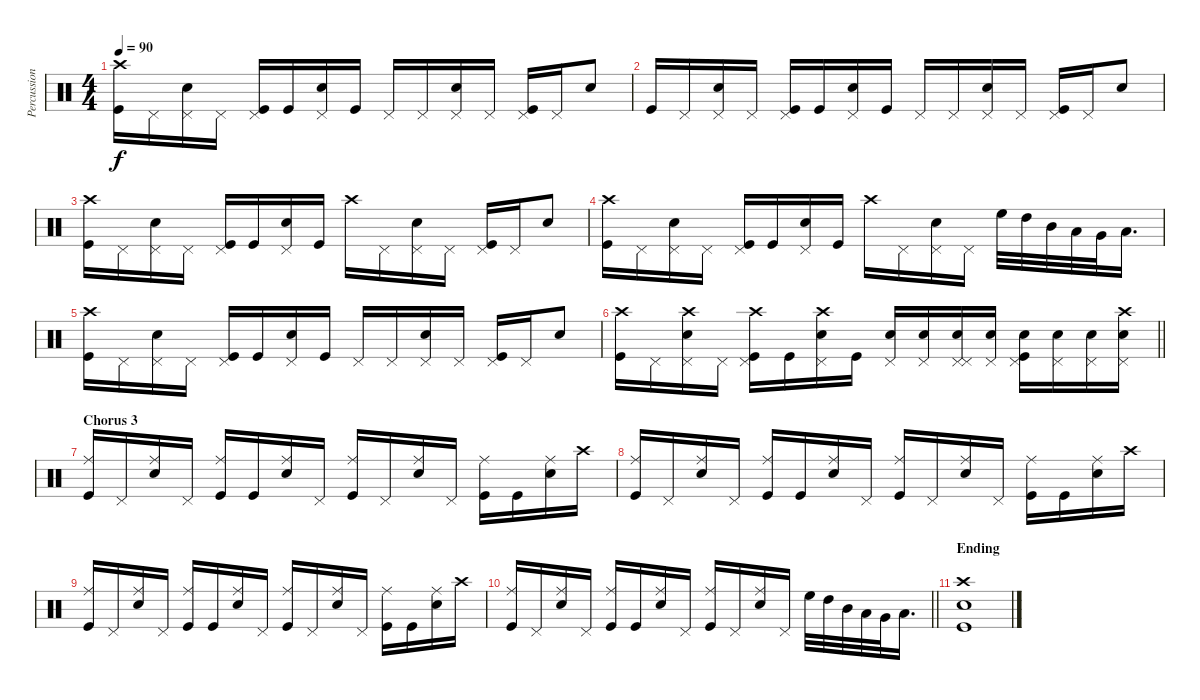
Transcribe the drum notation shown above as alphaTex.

\track ("Percussion" "Percussion") {instrument percussion}
\staff {score}
\articulation defaults
\ts (4 4)
\tempo 90
\clef neutral
\ks c
("Crash high (hit)" "Kick (hit)").16{dy f} "Pedal Hi-Hat (hit)".16 ("Pedal Hi-Hat (hit)" "Snare (hit) 2").16 "Pedal Hi-Hat (hit)".16 ("Pedal Hi-Hat (hit)" "Kick (hit)").16 "Kick (hit)".16 ("Pedal Hi-Hat (hit)" "Snare (hit) 2").16 "Kick (hit)".16 "Pedal Hi-Hat (hit)".16 "Pedal Hi-Hat (hit)".16 ("Pedal Hi-Hat (hit)" "Snare (hit) 2").16 "Pedal Hi-Hat (hit)".16 ("Pedal Hi-Hat (hit)" "Kick (hit)").16 "Pedal Hi-Hat (hit)".16 "Snare (hit) 2".8 |
"Kick (hit)".16 "Pedal Hi-Hat (hit)".16 ("Pedal Hi-Hat (hit)" "Snare (hit) 2").16 "Pedal Hi-Hat (hit)".16 ("Pedal Hi-Hat (hit)" "Kick (hit)").16 "Kick (hit)".16 ("Pedal Hi-Hat (hit)" "Snare (hit) 2").16 "Kick (hit)".16 "Pedal Hi-Hat (hit)".16 "Pedal Hi-Hat (hit)".16 ("Pedal Hi-Hat (hit)" "Snare (hit) 2").16 "Pedal Hi-Hat (hit)".16 ("Pedal Hi-Hat (hit)" "Kick (hit)").16 "Pedal Hi-Hat (hit)".16 "Snare (hit) 2".8 |
("Crash high (hit)" "Kick (hit)").16 "Pedal Hi-Hat (hit)".16 ("Pedal Hi-Hat (hit)" "Snare (hit) 2").16 "Pedal Hi-Hat (hit)".16 ("Pedal Hi-Hat (hit)" "Kick (hit)").16 "Kick (hit)".16 ("Pedal Hi-Hat (hit)" "Snare (hit) 2").16 "Kick (hit)".16 "Crash high (hit)".16 "Pedal Hi-Hat (hit)".16 ("Pedal Hi-Hat (hit)" "Snare (hit) 2").16 "Pedal Hi-Hat (hit)".16 ("Pedal Hi-Hat (hit)" "Kick (hit)").16 "Pedal Hi-Hat (hit)".16 "Snare (hit) 2".8 |
("Crash high (hit)" "Kick (hit)").16 "Pedal Hi-Hat (hit)".16 ("Pedal Hi-Hat (hit)" "Snare (hit) 2").16 "Pedal Hi-Hat (hit)".16 ("Pedal Hi-Hat (hit)" "Kick (hit)").16 "Kick (hit)".16 ("Pedal Hi-Hat (hit)" "Snare (hit) 2").16 "Kick (hit)".16 "Crash high (hit)".16 "Pedal Hi-Hat (hit)".16 ("Pedal Hi-Hat (hit)" "Snare (hit) 2").16 "Pedal Hi-Hat (hit)".16 "High Floor Tom (hit)".32 "High Tom (hit)".32 "Mid Tom (hit)".32 "Low Tom (hit)".32 "Very Low Tom (hit)".32 "Low Floor Tom (hit)".16{d} |
("Crash high (hit)" "Kick (hit)").16 "Pedal Hi-Hat (hit)".16 ("Pedal Hi-Hat (hit)" "Snare (hit) 2").16 "Pedal Hi-Hat (hit)".16 ("Pedal Hi-Hat (hit)" "Kick (hit)").16 "Kick (hit)".16 ("Pedal Hi-Hat (hit)" "Snare (hit) 2").16 "Kick (hit)".16 "Pedal Hi-Hat (hit)".16 "Pedal Hi-Hat (hit)".16 ("Pedal Hi-Hat (hit)" "Snare (hit) 2").16 "Pedal Hi-Hat (hit)".16 ("Pedal Hi-Hat (hit)" "Kick (hit)").16 "Pedal Hi-Hat (hit)".16 "Snare (hit) 2".8 |
\barLineRight lightlight
("Crash high (hit)" "Kick (hit)").16 "Pedal Hi-Hat (hit)".16 ("Pedal Hi-Hat (hit)" "Crash high (hit)" "Snare (hit) 2").16 "Pedal Hi-Hat (hit)".16 ("Pedal Hi-Hat (hit)" "Kick (hit)" "Crash high (hit)").16 "Kick (hit)".16 ("Pedal Hi-Hat (hit)" "Crash high (hit)" "Snare (hit) 2").16 "Kick (hit)".16 ("Pedal Hi-Hat (hit)" "Snare (hit) 2").16 ("Snare (hit) 2" "Pedal Hi-Hat (hit)").16 ("Pedal Hi-Hat (hit)" "Pedal Hi-Hat (hit)" "Snare (hit) 2").16 ("Snare (hit) 2" "Pedal Hi-Hat (hit)").16 ("Pedal Hi-Hat (hit)" "Snare (hit) 2" "Kick (hit)").16 ("Snare (hit) 2" "Pedal Hi-Hat (hit)").16 ("Pedal Hi-Hat (hit)" "Snare (hit) 2").16 ("Snare (hit) 2" "Crash high (hit)" "Pedal Hi-Hat (hit)").16 |
\section ("" "Chorus 3")
("Ride (middle)" "Kick (hit)").16 "Pedal Hi-Hat (hit)".16 ("Ride (middle)" "Snare (hit) 2").16 "Pedal Hi-Hat (hit)".16 ("Ride (middle)" "Kick (hit)").16 "Kick (hit)".16 ("Ride (middle)" "Snare (hit) 2").16 "Pedal Hi-Hat (hit)".16 ("Ride (middle)" "Kick (hit)").16 "Pedal Hi-Hat (hit)".16 ("Ride (middle)" "Snare (hit) 2").16 "Pedal Hi-Hat (hit)".16 ("Ride (middle)" "Kick (hit)").16 "Kick (hit)".16 ("Ride (middle)" "Snare (hit) 2").16 "Crash high (hit)".16 |
("Ride (middle)" "Kick (hit)").16 "Pedal Hi-Hat (hit)".16 ("Ride (middle)" "Snare (hit) 2").16 "Pedal Hi-Hat (hit)".16 ("Ride (middle)" "Kick (hit)").16 "Kick (hit)".16 ("Ride (middle)" "Snare (hit) 2").16 "Pedal Hi-Hat (hit)".16 ("Ride (middle)" "Kick (hit)").16 "Pedal Hi-Hat (hit)".16 ("Ride (middle)" "Snare (hit) 2").16 "Pedal Hi-Hat (hit)".16 ("Ride (middle)" "Kick (hit)").16 "Kick (hit)".16 ("Ride (middle)" "Snare (hit) 2").16 "Crash high (hit)".16 |
("Ride (middle)" "Kick (hit)").16 "Pedal Hi-Hat (hit)".16 ("Ride (middle)" "Snare (hit) 2").16 "Pedal Hi-Hat (hit)".16 ("Ride (middle)" "Kick (hit)").16 "Kick (hit)".16 ("Ride (middle)" "Snare (hit) 2").16 "Pedal Hi-Hat (hit)".16 ("Ride (middle)" "Kick (hit)").16 "Pedal Hi-Hat (hit)".16 ("Ride (middle)" "Snare (hit) 2").16 "Pedal Hi-Hat (hit)".16 ("Ride (middle)" "Kick (hit)").16 "Kick (hit)".16 ("Ride (middle)" "Snare (hit) 2").16 "Crash high (hit)".16 |
\barLineRight lightlight
("Ride (middle)" "Kick (hit)").16 "Pedal Hi-Hat (hit)".16 ("Ride (middle)" "Snare (hit) 2").16 "Pedal Hi-Hat (hit)".16 ("Ride (middle)" "Kick (hit)").16 "Kick (hit)".16 ("Ride (middle)" "Snare (hit) 2").16 "Pedal Hi-Hat (hit)".16 ("Ride (middle)" "Kick (hit)").16 "Pedal Hi-Hat (hit)".16 ("Ride (middle)" "Snare (hit) 2").16 "Pedal Hi-Hat (hit)".16 "High Floor Tom (hit)".32 "High Tom (hit)".32 "Mid Tom (hit)".32 "Low Tom (hit)".32 "Very Low Tom (hit)".32 "Low Floor Tom (hit)".16{d} |
\section ("" "Ending")
("Snare (hit) 2" "Kick (hit)" "Crash high (hit)").1
